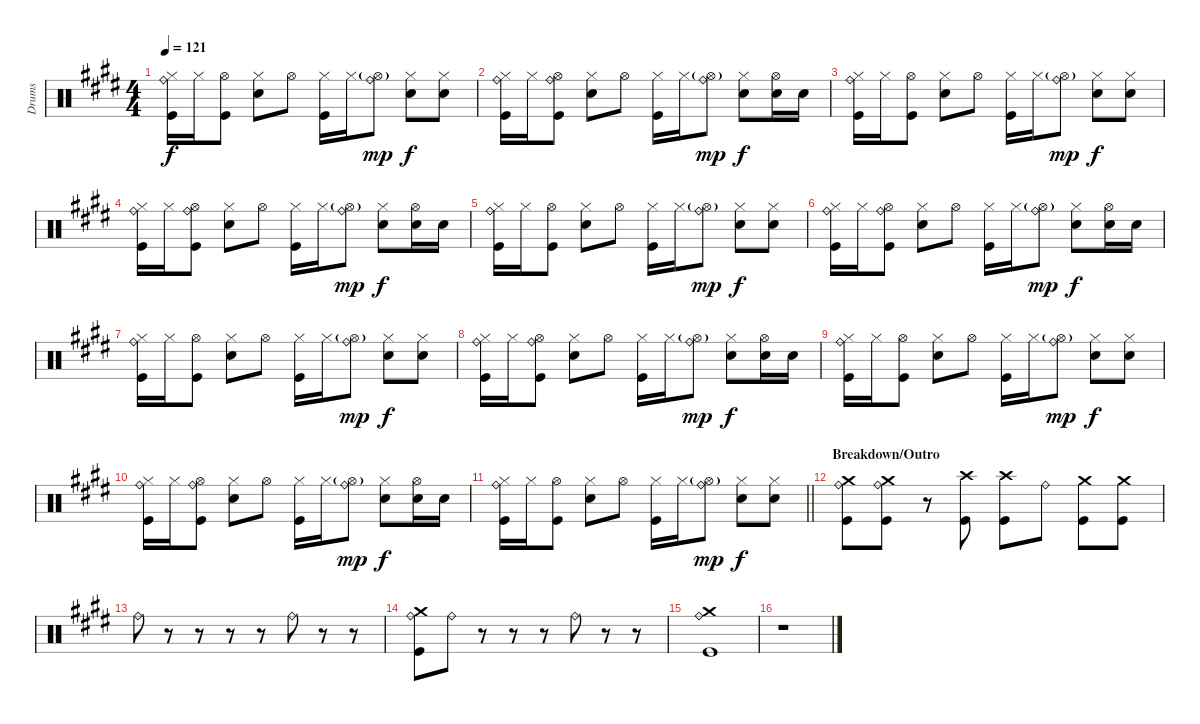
\track ("Drums" "Drums") {instrument percussion}
\staff {score}
\articulation defaults
\ts (4 4)
\tempo 121
\clef neutral
\ks c#minor
("Ride (bell)" "Hi-Hat (closed)" "Kick (hit)").16{dy f} "Hi-Hat (closed)".16 ("Hi-Hat (open)" "Kick (hit)").8 ("Hi-Hat (closed)" "Electric Snare (hit)").8 "Hi-Hat (open)".8 ("Hi-Hat (closed)" "Kick (hit)").16 "Hi-Hat (closed)".16 ("Ride (bell)" "Hi-Hat (open)"{g}).8{dy mp} ("Hi-Hat (closed)" "Electric Snare (hit)").8{dy f} ("Hi-Hat (closed)" "Electric Snare (hit)").8 |
("Ride (bell)" "Hi-Hat (closed)" "Kick (hit)").16 "Hi-Hat (closed)".16 ("Ride (bell)" "Hi-Hat (open)" "Kick (hit)").8 ("Hi-Hat (closed)" "Electric Snare (hit)").8 "Hi-Hat (open)".8 ("Hi-Hat (closed)" "Kick (hit)").16 "Hi-Hat (closed)".16 ("Ride (bell)" "Hi-Hat (open)"{g}).8{dy mp} ("Hi-Hat (closed)" "Electric Snare (hit)").8{dy f} ("Hi-Hat (open)" "Electric Snare (hit)").16 "Electric Snare (hit)".16 |
("Ride (bell)" "Hi-Hat (closed)" "Kick (hit)").16 "Hi-Hat (closed)".16 ("Hi-Hat (open)" "Kick (hit)").8 ("Hi-Hat (closed)" "Electric Snare (hit)").8 "Hi-Hat (open)".8 ("Hi-Hat (closed)" "Kick (hit)").16 "Hi-Hat (closed)".16 ("Ride (bell)" "Hi-Hat (open)"{g}).8{dy mp} ("Hi-Hat (closed)" "Electric Snare (hit)").8{dy f} ("Hi-Hat (closed)" "Electric Snare (hit)").8 |
("Ride (bell)" "Hi-Hat (closed)" "Kick (hit)").16 "Hi-Hat (closed)".16 ("Ride (bell)" "Hi-Hat (open)" "Kick (hit)").8 ("Hi-Hat (closed)" "Electric Snare (hit)").8 "Hi-Hat (open)".8 ("Hi-Hat (closed)" "Kick (hit)").16 "Hi-Hat (closed)".16 ("Ride (bell)" "Hi-Hat (open)"{g}).8{dy mp} ("Hi-Hat (closed)" "Electric Snare (hit)").8{dy f} ("Hi-Hat (open)" "Electric Snare (hit)").16 "Electric Snare (hit)".16 |
("Ride (bell)" "Hi-Hat (closed)" "Kick (hit)").16 "Hi-Hat (closed)".16 ("Hi-Hat (open)" "Kick (hit)").8 ("Hi-Hat (closed)" "Electric Snare (hit)").8 "Hi-Hat (open)".8 ("Hi-Hat (closed)" "Kick (hit)").16 "Hi-Hat (closed)".16 ("Ride (bell)" "Hi-Hat (open)"{g}).8{dy mp} ("Hi-Hat (closed)" "Electric Snare (hit)").8{dy f} ("Hi-Hat (closed)" "Electric Snare (hit)").8 |
("Ride (bell)" "Hi-Hat (closed)" "Kick (hit)").16 "Hi-Hat (closed)".16 ("Ride (bell)" "Hi-Hat (open)" "Kick (hit)").8 ("Hi-Hat (closed)" "Electric Snare (hit)").8 "Hi-Hat (open)".8 ("Hi-Hat (closed)" "Kick (hit)").16 "Hi-Hat (closed)".16 ("Ride (bell)" "Hi-Hat (open)"{g}).8{dy mp} ("Hi-Hat (closed)" "Electric Snare (hit)").8{dy f} ("Hi-Hat (open)" "Electric Snare (hit)").16 "Electric Snare (hit)".16 |
("Ride (bell)" "Hi-Hat (closed)" "Kick (hit)").16 "Hi-Hat (closed)".16 ("Hi-Hat (open)" "Kick (hit)").8 ("Hi-Hat (closed)" "Electric Snare (hit)").8 "Hi-Hat (open)".8 ("Hi-Hat (closed)" "Kick (hit)").16 "Hi-Hat (closed)".16 ("Ride (bell)" "Hi-Hat (open)"{g}).8{dy mp} ("Hi-Hat (closed)" "Electric Snare (hit)").8{dy f} ("Hi-Hat (closed)" "Electric Snare (hit)").8 |
("Ride (bell)" "Hi-Hat (closed)" "Kick (hit)").16 "Hi-Hat (closed)".16 ("Ride (bell)" "Hi-Hat (open)" "Kick (hit)").8 ("Hi-Hat (closed)" "Electric Snare (hit)").8 "Hi-Hat (open)".8 ("Hi-Hat (closed)" "Kick (hit)").16 "Hi-Hat (closed)".16 ("Ride (bell)" "Hi-Hat (open)"{g}).8{dy mp} ("Hi-Hat (closed)" "Electric Snare (hit)").8{dy f} ("Hi-Hat (open)" "Electric Snare (hit)").16 "Electric Snare (hit)".16 |
("Ride (bell)" "Hi-Hat (closed)" "Kick (hit)").16 "Hi-Hat (closed)".16 ("Hi-Hat (open)" "Kick (hit)").8 ("Hi-Hat (closed)" "Electric Snare (hit)").8 "Hi-Hat (open)".8 ("Hi-Hat (closed)" "Kick (hit)").16 "Hi-Hat (closed)".16 ("Ride (bell)" "Hi-Hat (open)"{g}).8{dy mp} ("Hi-Hat (closed)" "Electric Snare (hit)").8{dy f} ("Hi-Hat (closed)" "Electric Snare (hit)").8 |
("Ride (bell)" "Hi-Hat (closed)" "Kick (hit)").16 "Hi-Hat (closed)".16 ("Ride (bell)" "Hi-Hat (open)" "Kick (hit)").8 ("Hi-Hat (closed)" "Electric Snare (hit)").8 "Hi-Hat (open)".8 ("Hi-Hat (closed)" "Kick (hit)").16 "Hi-Hat (closed)".16 ("Ride (bell)" "Hi-Hat (open)"{g}).8{dy mp} ("Hi-Hat (closed)" "Electric Snare (hit)").8{dy f} ("Hi-Hat (open)" "Electric Snare (hit)").16 "Electric Snare (hit)".16 |
\barLineRight lightlight
("Ride (bell)" "Hi-Hat (closed)" "Kick (hit)").16 "Hi-Hat (closed)".16 ("Hi-Hat (open)" "Kick (hit)").8 ("Hi-Hat (closed)" "Electric Snare (hit)").8 "Hi-Hat (open)".8 ("Hi-Hat (closed)" "Kick (hit)").16 "Hi-Hat (closed)".16 ("Ride (bell)" "Hi-Hat (open)"{g}).8{dy mp} ("Hi-Hat (closed)" "Electric Snare (hit)").8{dy f} ("Hi-Hat (closed)" "Electric Snare (hit)").8 |
\section ("" "Breakdown/Outro")
("Ride (bell)" "Crash medium (hit)" "Kick (hit)").8 ("Ride (bell)" "Crash medium (hit)" "Kick (hit)").8 r.8 ("Crash high (hit)" "Kick (hit)").8 ("Crash high (hit)" "Kick (hit)").8 "Ride (bell)".8 ("Crash medium (hit)" "Kick (hit)").8 ("Crash medium (hit)" "Kick (hit)").8 |
"Ride (bell)".8 r.8 r.8 r.8 r.8 "Ride (bell)".8 r.8 r.8 |
("Ride (bell)" "Crash medium (hit)" "Kick (hit)").8 "Ride (bell)".8 r.8 r.8 r.8 "Ride (bell)".8 r.8 r.8 |
("Ride (bell)" "Crash medium (hit)" "Kick (hit)").1 |
r.1
